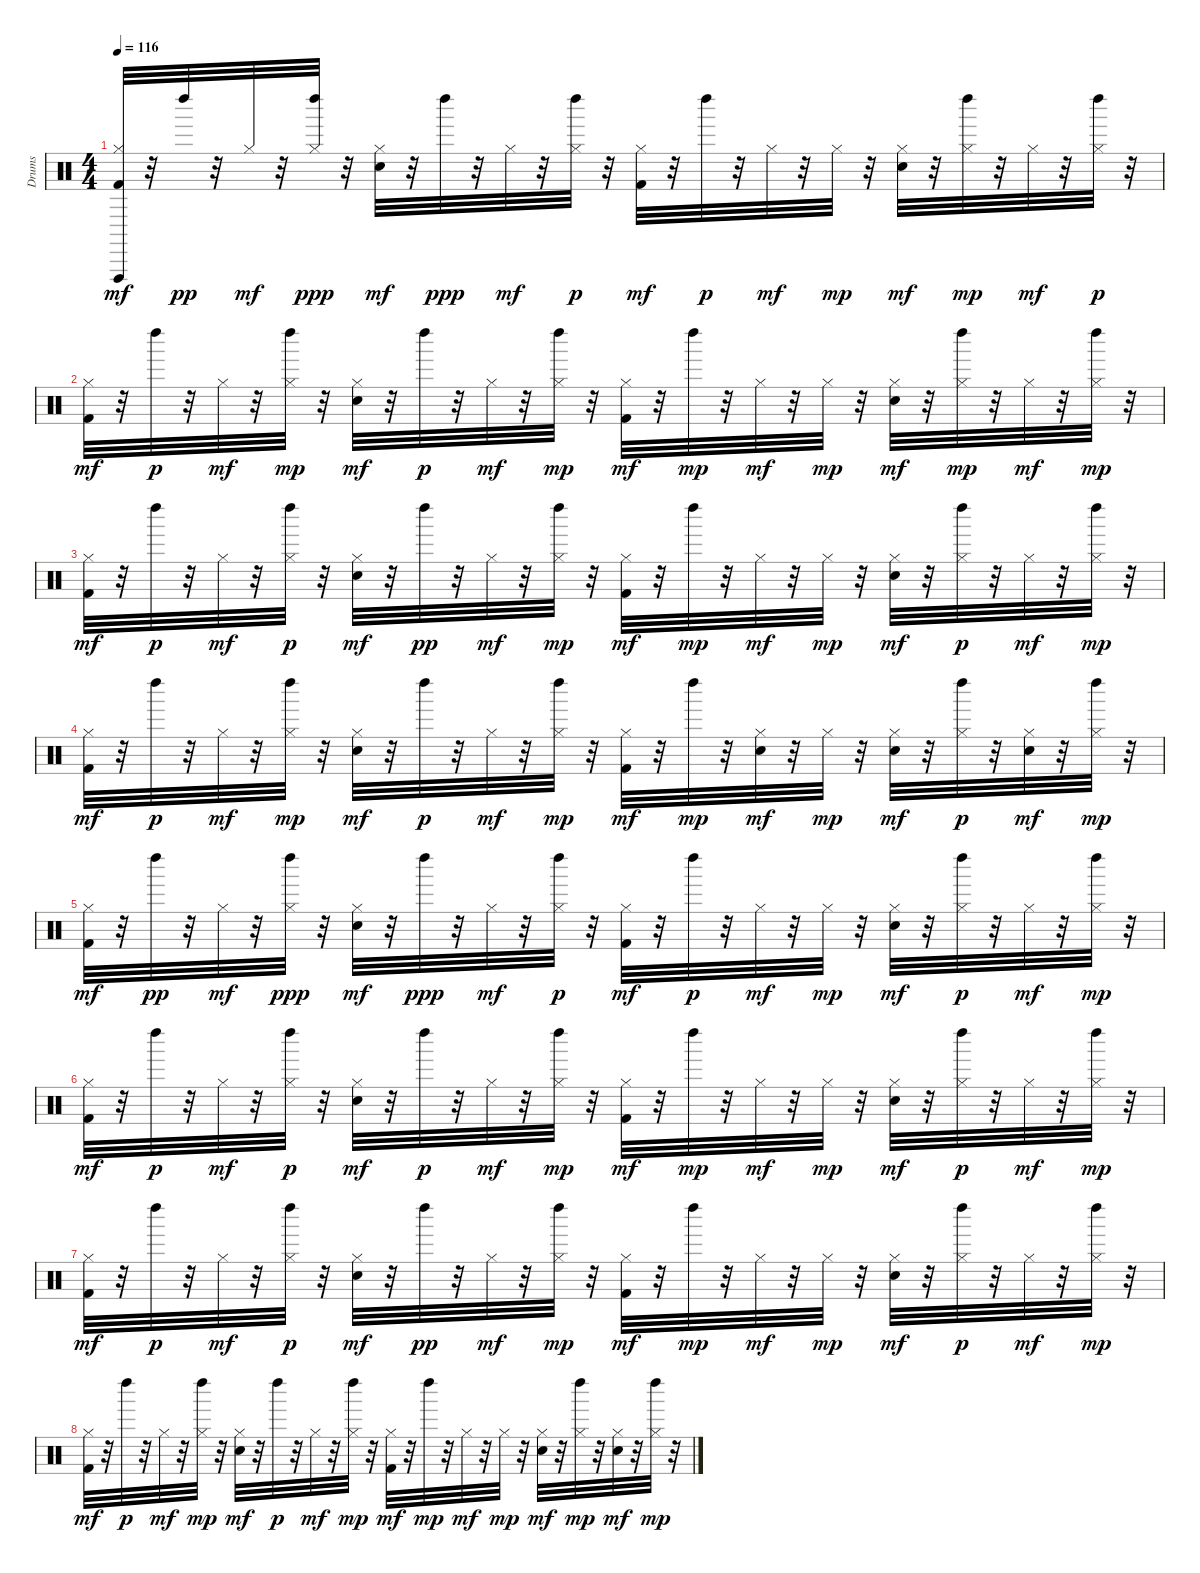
\track ("Drums" "Drums") {instrument percussion}
\staff {score}
\articulation defaults
\ts (4 4)
\tempo 116
\clef neutral
\ks c
("Vibraslap (hit)" "Kick (hit) 2" "Hi-Hat (closed)").32{dy mf} r.32 "Left Maraca (hit)".32{dy pp} r.32 "Hi-Hat (closed)".32{dy mf} r.32 ("Hi-Hat (closed)" "Left Maraca (hit)").32{dy ppp} r.32 ("Snare (hit) 2" "Hi-Hat (closed)").32{dy mf} r.32 "Left Maraca (hit)".32{dy ppp} r.32 "Hi-Hat (closed)".32{dy mf} r.32 ("Hi-Hat (closed)" "Left Maraca (hit)").32{dy p} r.32 ("Hi-Hat (closed)" "Kick (hit) 2").32{dy mf} r.32 "Left Maraca (hit)".32{dy p} r.32 "Hi-Hat (closed)".32{dy mf} r.32 "Hi-Hat (closed)".32{dy mp} r.32 ("Hi-Hat (closed)" "Snare (hit) 2").32{dy mf} r.32 ("Left Maraca (hit)" "Hi-Hat (closed)").32{dy mp} r.32 "Hi-Hat (closed)".32{dy mf} r.32 ("Hi-Hat (closed)" "Left Maraca (hit)").32{dy p} r.32 |
("Hi-Hat (closed)" "Kick (hit) 2").32{dy mf} r.32 "Left Maraca (hit)".32{dy p} r.32 "Hi-Hat (closed)".32{dy mf} r.32 ("Left Maraca (hit)" "Hi-Hat (closed)").32{dy mp} r.32 ("Hi-Hat (closed)" "Snare (hit) 2").32{dy mf} r.32 "Left Maraca (hit)".32{dy p} r.32 "Hi-Hat (closed)".32{dy mf} r.32 ("Left Maraca (hit)" "Hi-Hat (closed)").32{dy mp} r.32 ("Hi-Hat (closed)" "Kick (hit) 2").32{dy mf} r.32 "Left Maraca (hit)".32{dy mp} r.32 "Hi-Hat (closed)".32{dy mf} r.32 "Hi-Hat (closed)".32{dy mp} r.32 ("Hi-Hat (closed)" "Snare (hit) 2").32{dy mf} r.32 ("Left Maraca (hit)" "Hi-Hat (closed)").32{dy mp} r.32 "Hi-Hat (closed)".32{dy mf} r.32 ("Hi-Hat (closed)" "Left Maraca (hit)").32{dy mp} r.32 |
("Hi-Hat (closed)" "Kick (hit) 2").32{dy mf} r.32 "Left Maraca (hit)".32{dy p} r.32 "Hi-Hat (closed)".32{dy mf} r.32 ("Hi-Hat (closed)" "Left Maraca (hit)").32{dy p} r.32 ("Snare (hit) 2" "Hi-Hat (closed)").32{dy mf} r.32 "Left Maraca (hit)".32{dy pp} r.32 "Hi-Hat (closed)".32{dy mf} r.32 ("Hi-Hat (closed)" "Left Maraca (hit)").32{dy mp} r.32 ("Kick (hit) 2" "Hi-Hat (closed)").32{dy mf} r.32 "Left Maraca (hit)".32{dy mp} r.32 "Hi-Hat (closed)".32{dy mf} r.32 "Hi-Hat (closed)".32{dy mp} r.32 ("Snare (hit) 2" "Hi-Hat (closed)").32{dy mf} r.32 ("Hi-Hat (closed)" "Left Maraca (hit)").32{dy p} r.32 "Hi-Hat (closed)".32{dy mf} r.32 ("Left Maraca (hit)" "Hi-Hat (closed)").32{dy mp} r.32 |
("Kick (hit) 2" "Hi-Hat (closed)").32{dy mf} r.32 "Left Maraca (hit)".32{dy p} r.32 "Hi-Hat (closed)".32{dy mf} r.32 ("Left Maraca (hit)" "Hi-Hat (closed)").32{dy mp} r.32 ("Snare (hit) 2" "Hi-Hat (closed)").32{dy mf} r.32 "Left Maraca (hit)".32{dy p} r.32 "Hi-Hat (closed)".32{dy mf} r.32 ("Hi-Hat (closed)" "Left Maraca (hit)").32{dy mp} r.32 ("Hi-Hat (closed)" "Kick (hit) 2").32{dy mf} r.32 "Left Maraca (hit)".32{dy mp} r.32 ("Snare (hit) 2" "Hi-Hat (closed)").32{dy mf} r.32 "Hi-Hat (closed)".32{dy mp} r.32 ("Snare (hit) 2" "Hi-Hat (closed)").32{dy mf} r.32 ("Hi-Hat (closed)" "Left Maraca (hit)").32{dy p} r.32 ("Snare (hit) 2" "Hi-Hat (closed)").32{dy mf} r.32 ("Hi-Hat (closed)" "Left Maraca (hit)").32{dy mp} r.32 |
("Kick (hit) 2" "Hi-Hat (closed)").32{dy mf} r.32 "Left Maraca (hit)".32{dy pp} r.32 "Hi-Hat (closed)".32{dy mf} r.32 ("Hi-Hat (closed)" "Left Maraca (hit)").32{dy ppp} r.32 ("Hi-Hat (closed)" "Snare (hit) 2").32{dy mf} r.32 "Left Maraca (hit)".32{dy ppp} r.32 "Hi-Hat (closed)".32{dy mf} r.32 ("Hi-Hat (closed)" "Left Maraca (hit)").32{dy p} r.32 ("Kick (hit) 2" "Hi-Hat (closed)").32{dy mf} r.32 "Left Maraca (hit)".32{dy p} r.32 "Hi-Hat (closed)".32{dy mf} r.32 "Hi-Hat (closed)".32{dy mp} r.32 ("Snare (hit) 2" "Hi-Hat (closed)").32{dy mf} r.32 ("Hi-Hat (closed)" "Left Maraca (hit)").32{dy p} r.32 "Hi-Hat (closed)".32{dy mf} r.32 ("Left Maraca (hit)" "Hi-Hat (closed)").32{dy mp} r.32 |
("Hi-Hat (closed)" "Kick (hit) 2").32{dy mf} r.32 "Left Maraca (hit)".32{dy p} r.32 "Hi-Hat (closed)".32{dy mf} r.32 ("Hi-Hat (closed)" "Left Maraca (hit)").32{dy p} r.32 ("Snare (hit) 2" "Hi-Hat (closed)").32{dy mf} r.32 "Left Maraca (hit)".32{dy p} r.32 "Hi-Hat (closed)".32{dy mf} r.32 ("Left Maraca (hit)" "Hi-Hat (closed)").32{dy mp} r.32 ("Hi-Hat (closed)" "Kick (hit) 2").32{dy mf} r.32 "Left Maraca (hit)".32{dy mp} r.32 "Hi-Hat (closed)".32{dy mf} r.32 "Hi-Hat (closed)".32{dy mp} r.32 ("Hi-Hat (closed)" "Snare (hit) 2").32{dy mf} r.32 ("Hi-Hat (closed)" "Left Maraca (hit)").32{dy p} r.32 "Hi-Hat (closed)".32{dy mf} r.32 ("Hi-Hat (closed)" "Left Maraca (hit)").32{dy mp} r.32 |
("Kick (hit) 2" "Hi-Hat (closed)").32{dy mf} r.32 "Left Maraca (hit)".32{dy p} r.32 "Hi-Hat (closed)".32{dy mf} r.32 ("Hi-Hat (closed)" "Left Maraca (hit)").32{dy p} r.32 ("Snare (hit) 2" "Hi-Hat (closed)").32{dy mf} r.32 "Left Maraca (hit)".32{dy pp} r.32 "Hi-Hat (closed)".32{dy mf} r.32 ("Hi-Hat (closed)" "Left Maraca (hit)").32{dy mp} r.32 ("Kick (hit) 2" "Hi-Hat (closed)").32{dy mf} r.32 "Left Maraca (hit)".32{dy mp} r.32 "Hi-Hat (closed)".32{dy mf} r.32 "Hi-Hat (closed)".32{dy mp} r.32 ("Snare (hit) 2" "Hi-Hat (closed)").32{dy mf} r.32 ("Hi-Hat (closed)" "Left Maraca (hit)").32{dy p} r.32 "Hi-Hat (closed)".32{dy mf} r.32 ("Left Maraca (hit)" "Hi-Hat (closed)").32{dy mp} r.32 |
("Kick (hit) 2" "Hi-Hat (closed)").32{dy mf} r.32 "Left Maraca (hit)".32{dy p} r.32 "Hi-Hat (closed)".32{dy mf} r.32 ("Left Maraca (hit)" "Hi-Hat (closed)").32{dy mp} r.32 ("Snare (hit) 2" "Hi-Hat (closed)").32{dy mf} r.32 "Left Maraca (hit)".32{dy p} r.32 "Hi-Hat (closed)".32{dy mf} r.32 ("Hi-Hat (closed)" "Left Maraca (hit)").32{dy mp} r.32 ("Kick (hit) 2" "Hi-Hat (closed)").32{dy mf} r.32 "Left Maraca (hit)".32{dy mp} r.32 "Hi-Hat (closed)".32{dy mf} r.32 "Hi-Hat (closed)".32{dy mp} r.32 ("Hi-Hat (closed)" "Snare (hit) 2").32{dy mf} r.32 ("Left Maraca (hit)" "Hi-Hat (closed)").32{dy mp} r.32 ("Hi-Hat (closed)" "Snare (hit) 2").32{dy mf} r.32 ("Left Maraca (hit)" "Hi-Hat (closed)").32{dy mp} r.32
